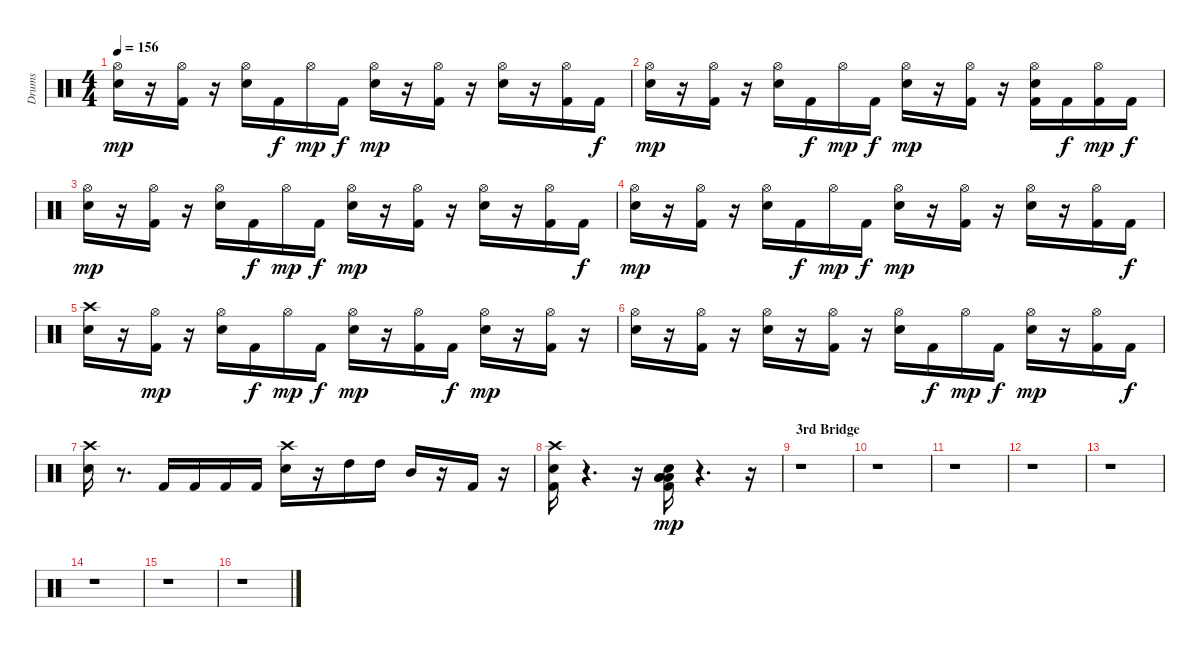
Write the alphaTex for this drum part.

\track ("Drums" "Drums") {instrument percussion}
\staff {score}
\articulation defaults
\ts (4 4)
\tempo 156
\clef neutral
\ks c
("Snare (hit) 2" "Hi-Hat (open)").16{dy mp} r.16 ("Kick (hit) 2" "Hi-Hat (open)").16 r.16 ("Snare (hit) 2" "Hi-Hat (open)").16 "Kick (hit) 2".16{dy f} "Hi-Hat (open)".16{dy mp} "Kick (hit) 2".16{dy f} ("Snare (hit) 2" "Hi-Hat (open)").16{dy mp} r.16 ("Kick (hit) 2" "Hi-Hat (open)").16 r.16 ("Snare (hit) 2" "Hi-Hat (open)").16 r.16 ("Kick (hit) 2" "Hi-Hat (open)").16 "Kick (hit) 2".16{dy f} |
("Snare (hit) 2" "Hi-Hat (open)").16{dy mp} r.16 ("Kick (hit) 2" "Hi-Hat (open)").16 r.16 ("Snare (hit) 2" "Hi-Hat (open)").16 "Kick (hit) 2".16{dy f} "Hi-Hat (open)".16{dy mp} "Kick (hit) 2".16{dy f} ("Snare (hit) 2" "Hi-Hat (open)").16{dy mp} r.16 ("Kick (hit) 2" "Hi-Hat (open)").16 r.16 ("Kick (hit) 2" "Snare (hit) 2" "Hi-Hat (open)").16 "Kick (hit) 2".16{dy f} ("Kick (hit) 2" "Hi-Hat (open)").16{dy mp} "Kick (hit) 2".16{dy f} |
("Snare (hit) 2" "Hi-Hat (open)").16{dy mp} r.16 ("Kick (hit) 2" "Hi-Hat (open)").16 r.16 ("Snare (hit) 2" "Hi-Hat (open)").16 "Kick (hit) 2".16{dy f} "Hi-Hat (open)".16{dy mp} "Kick (hit) 2".16{dy f} ("Snare (hit) 2" "Hi-Hat (open)").16{dy mp} r.16 ("Kick (hit) 2" "Hi-Hat (open)").16 r.16 ("Snare (hit) 2" "Hi-Hat (open)").16 r.16 ("Kick (hit) 2" "Hi-Hat (open)").16 "Kick (hit) 2".16{dy f} |
("Snare (hit) 2" "Hi-Hat (open)").16{dy mp} r.16 ("Kick (hit) 2" "Hi-Hat (open)").16 r.16 ("Snare (hit) 2" "Hi-Hat (open)").16 "Kick (hit) 2".16{dy f} "Hi-Hat (open)".16{dy mp} "Kick (hit) 2".16{dy f} ("Snare (hit) 2" "Hi-Hat (open)").16{dy mp} r.16 ("Kick (hit) 2" "Hi-Hat (open)").16 r.16 ("Snare (hit) 2" "Hi-Hat (open)").16 r.16 ("Kick (hit) 2" "Hi-Hat (open)").16 "Kick (hit) 2".16{dy f} |
("Snare (hit) 2" "Crash high (hit)").16 r.16 ("Kick (hit) 2" "Hi-Hat (open)").16{dy mp} r.16 ("Snare (hit) 2" "Hi-Hat (open)").16 "Kick (hit) 2".16{dy f} "Hi-Hat (open)".16{dy mp} "Kick (hit) 2".16{dy f} ("Snare (hit) 2" "Hi-Hat (open)").16{dy mp} r.16 ("Kick (hit) 2" "Hi-Hat (open)").16 "Kick (hit) 2".16{dy f} ("Snare (hit) 2" "Hi-Hat (open)").16{dy mp} r.16 ("Kick (hit) 2" "Hi-Hat (open)").16 r.16 |
("Snare (hit) 2" "Hi-Hat (open)").16 r.16 ("Kick (hit) 2" "Hi-Hat (open)").16 r.16 ("Snare (hit) 2" "Hi-Hat (open)").16 r.16 ("Kick (hit) 2" "Hi-Hat (open)").16 r.16 ("Snare (hit) 2" "Hi-Hat (open)").16 "Kick (hit) 2".16{dy f} "Hi-Hat (open)".16{dy mp} "Kick (hit) 2".16{dy f} ("Snare (hit) 2" "Hi-Hat (open)").16{dy mp} r.16 ("Kick (hit) 2" "Hi-Hat (open)").16 "Kick (hit) 2".16{dy f} |
("Snare (hit) 2" "Crash high (hit)").16 r.8{d} "Kick (hit) 2".16 "Kick (hit) 2".16 "Kick (hit) 2".16 "Kick (hit) 2".16 ("Snare (hit) 2" "Crash high (hit)").16 r.16 "High Tom (hit)".16 "High Tom (hit)".16 "Mid Tom (hit)".16 r.16 "Kick (hit) 2".16 r.16 |
("Kick (hit) 2" "Snare (hit) 2" "Crash high (hit)").16 r.4{d} r.16 ("Kick (hit) 2" "Snare (hit) 2" "Low Floor Tom (hit)" "Low Floor Tom (hit)" "Low Floor Tom (hit)").16{dy mp} r.4{d} r.16 |
\section ("" "3rd Bridge")
r.1 |
r.1 |
r.1 |
r.1 |
r.1 |
r.1 |
r.1 |
r.1
